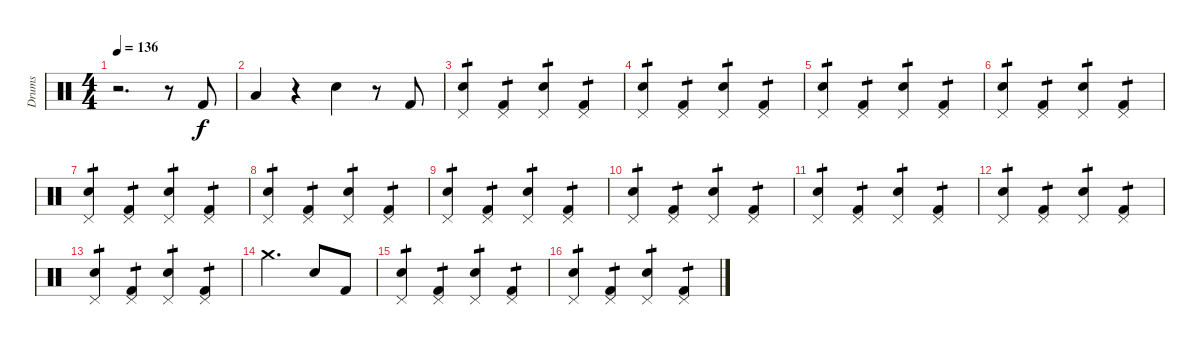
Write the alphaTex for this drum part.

\track ("Drums" "Drums") {instrument percussion}
\staff {score}
\articulation defaults
\ts (4 4)
\tempo 136
\clef neutral
\ks c
r.2{d dy f} r.8 "Kick (hit) 2".8 |
"Low Floor Tom (hit)".4 r.4 "Snare (hit) 2".4 r.8 "Kick (hit) 2".8 |
("Snare (hit) 2" "Pedal Hi-Hat (hit)").4{tp 1} ("Kick (hit) 2" "Pedal Hi-Hat (hit)").4{tp 1} ("Snare (hit) 2" "Pedal Hi-Hat (hit)").4{tp 1} ("Kick (hit) 2" "Pedal Hi-Hat (hit)").4{tp 1} |
("Snare (hit) 2" "Pedal Hi-Hat (hit)").4{tp 1} ("Kick (hit) 2" "Pedal Hi-Hat (hit)").4{tp 1} ("Snare (hit) 2" "Pedal Hi-Hat (hit)").4{tp 1} ("Kick (hit) 2" "Pedal Hi-Hat (hit)").4{tp 1} |
("Snare (hit) 2" "Pedal Hi-Hat (hit)").4{tp 1} ("Kick (hit) 2" "Pedal Hi-Hat (hit)").4{tp 1} ("Snare (hit) 2" "Pedal Hi-Hat (hit)").4{tp 1} ("Kick (hit) 2" "Pedal Hi-Hat (hit)").4{tp 1} |
("Snare (hit) 2" "Pedal Hi-Hat (hit)").4{tp 1} ("Kick (hit) 2" "Pedal Hi-Hat (hit)").4{tp 1} ("Snare (hit) 2" "Pedal Hi-Hat (hit)").4{tp 1} ("Kick (hit) 2" "Pedal Hi-Hat (hit)").4{tp 1} |
("Snare (hit) 2" "Pedal Hi-Hat (hit)").4{tp 1} ("Kick (hit) 2" "Pedal Hi-Hat (hit)").4{tp 1} ("Snare (hit) 2" "Pedal Hi-Hat (hit)").4{tp 1} ("Kick (hit) 2" "Pedal Hi-Hat (hit)").4{tp 1} |
("Snare (hit) 2" "Pedal Hi-Hat (hit)").4{tp 1} ("Kick (hit) 2" "Pedal Hi-Hat (hit)").4{tp 1} ("Snare (hit) 2" "Pedal Hi-Hat (hit)").4{tp 1} ("Kick (hit) 2" "Pedal Hi-Hat (hit)").4{tp 1} |
("Snare (hit) 2" "Pedal Hi-Hat (hit)").4{tp 1} ("Kick (hit) 2" "Pedal Hi-Hat (hit)").4{tp 1} ("Snare (hit) 2" "Pedal Hi-Hat (hit)").4{tp 1} ("Kick (hit) 2" "Pedal Hi-Hat (hit)").4{tp 1} |
("Snare (hit) 2" "Pedal Hi-Hat (hit)").4{tp 1} ("Kick (hit) 2" "Pedal Hi-Hat (hit)").4{tp 1} ("Snare (hit) 2" "Pedal Hi-Hat (hit)").4{tp 1} ("Kick (hit) 2" "Pedal Hi-Hat (hit)").4{tp 1} |
("Snare (hit) 2" "Pedal Hi-Hat (hit)").4{tp 1} ("Kick (hit) 2" "Pedal Hi-Hat (hit)").4{tp 1} ("Snare (hit) 2" "Pedal Hi-Hat (hit)").4{tp 1} ("Kick (hit) 2" "Pedal Hi-Hat (hit)").4{tp 1} |
("Snare (hit) 2" "Pedal Hi-Hat (hit)").4{tp 1} ("Kick (hit) 2" "Pedal Hi-Hat (hit)").4{tp 1} ("Snare (hit) 2" "Pedal Hi-Hat (hit)").4{tp 1} ("Kick (hit) 2" "Pedal Hi-Hat (hit)").4{tp 1} |
("Snare (hit) 2" "Pedal Hi-Hat (hit)").4{tp 1} ("Kick (hit) 2" "Pedal Hi-Hat (hit)").4{tp 1} ("Snare (hit) 2" "Pedal Hi-Hat (hit)").4{tp 1} ("Kick (hit) 2" "Pedal Hi-Hat (hit)").4{tp 1} |
"Crash medium (hit)".2{d} "Snare (hit) 2".8 "Kick (hit) 2".8 |
("Snare (hit) 2" "Pedal Hi-Hat (hit)").4{tp 1} ("Kick (hit) 2" "Pedal Hi-Hat (hit)").4{tp 1} ("Snare (hit) 2" "Pedal Hi-Hat (hit)").4{tp 1} ("Kick (hit) 2" "Pedal Hi-Hat (hit)").4{tp 1} |
("Snare (hit) 2" "Pedal Hi-Hat (hit)").4{tp 1} ("Kick (hit) 2" "Pedal Hi-Hat (hit)").4{tp 1} ("Snare (hit) 2" "Pedal Hi-Hat (hit)").4{tp 1} ("Kick (hit) 2" "Pedal Hi-Hat (hit)").4{tp 1}
